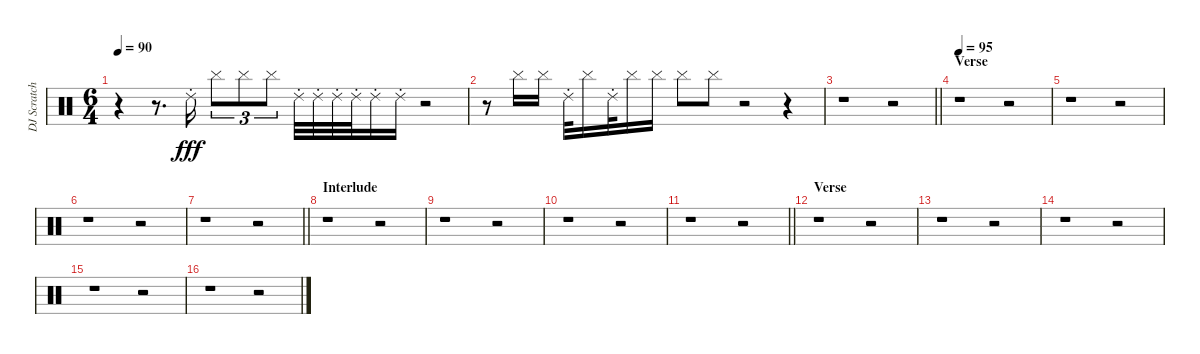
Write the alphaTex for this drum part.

\track ("DJ Scratches/ Percussion" "DJ Scratch") {instrument percussion}
\staff {score}
\articulation defaults
\ts (6 4)
\tempo 90
\clef neutral
\ks c
r.4{dy fff} r.8{d} "Ride (choke) 2".16 "Cymbal (hit)".8{tu (3 2)} "Cymbal (hit)".8{tu (3 2)} "Cymbal (hit)".8{tu (3 2)} "Ride (choke) 2".32 "Ride (choke) 2".32 "Ride (choke) 2".32 "Ride (choke) 2".32 "Ride (choke) 2".16 "Ride (choke) 2".16 r.2 |
r.8 "Cymbal (hit)".16 "Cymbal (hit)".16 "Ride (choke) 2".32 "Cymbal (hit)".16 "Ride (choke) 2".32 "Cymbal (hit)".16 "Cymbal (hit)".16 "Cymbal (hit)".8 "Cymbal (hit)".8 r.2 r.4 |
\barLineRight lightlight
r.1 r.2 |
\section ("" "Verse")
\tempo 95
r.1 r.2 |
r.1 r.2 |
r.1 r.2 |
\barLineRight lightlight
r.1 r.2 |
\section ("" "Interlude")
r.1 r.2 |
r.1 r.2 |
r.1 r.2 |
\barLineRight lightlight
r.1 r.2 |
\section ("" "Verse")
r.1 r.2 |
r.1 r.2 |
r.1 r.2 |
r.1 r.2 |
r.1 r.2
